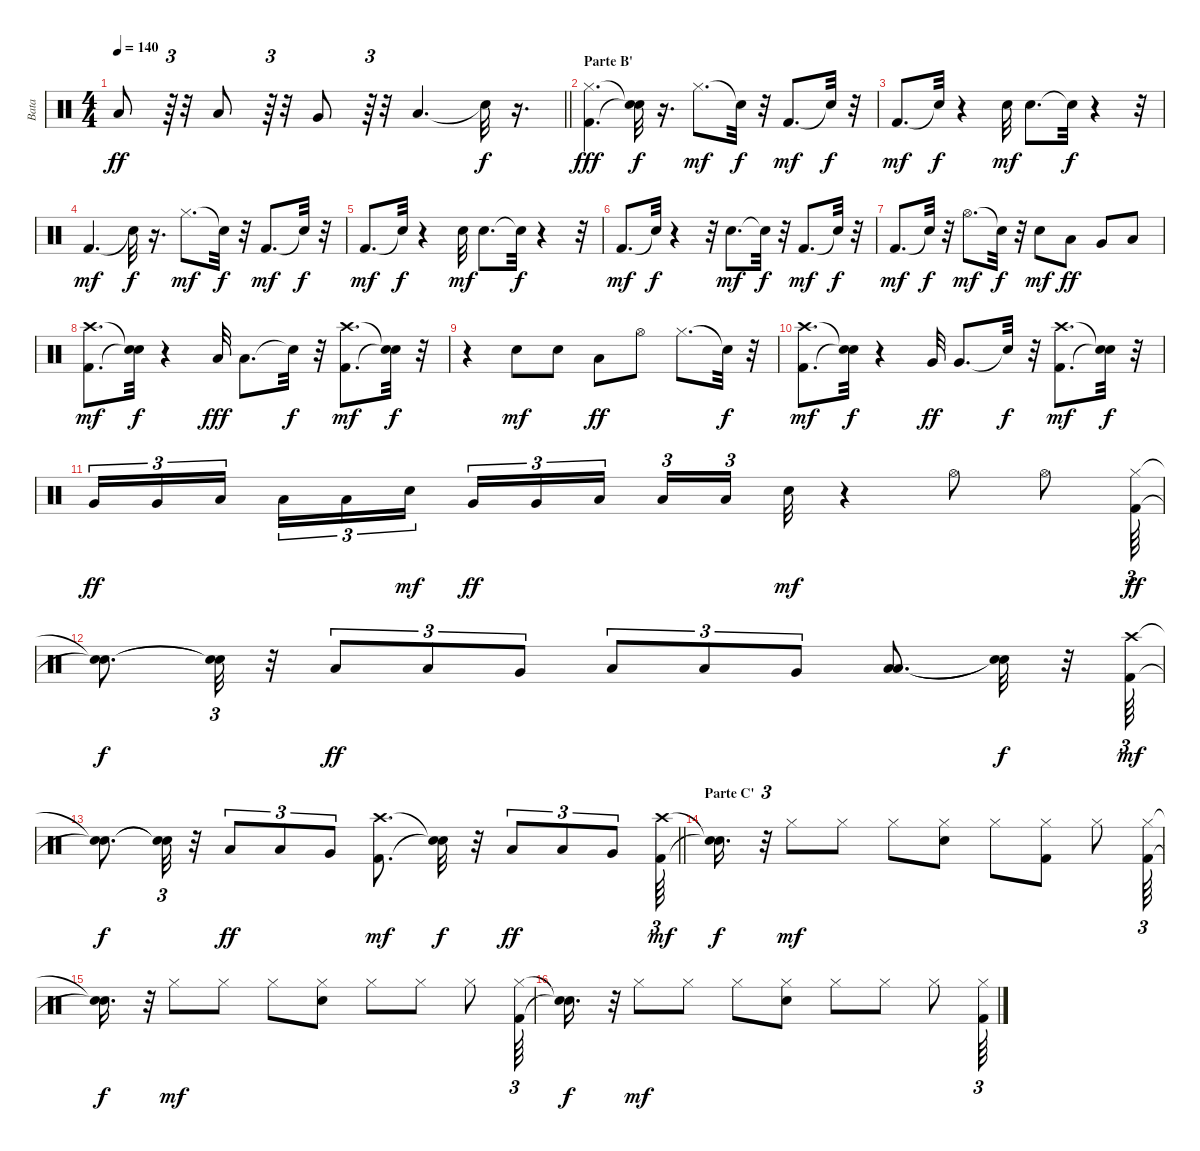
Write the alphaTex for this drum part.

\track ("Bata" "Bata") {instrument percussion}
\staff {score}
\articulation defaults
\ts (4 4)
\tempo 140
\clef neutral
\barLineRight lightlight
\ks c "Low Tom (hit)".8{dy ff}
r.64{tu (3 2)} r.32 "Low Tom (hit)".8 r.64{tu (3 2)} r.32 "Very Low Tom (hit)".8 r.64{tu (3 2)} r.32 "Low Floor Tom (hit)".4{d} "Snare (hit)"{t}.32{dy f} r.16{d} |
\section ("" "Parte B'")
("Kick (hit) 2" "Hi-Hat (closed)").4{d dy fff} ("Snare (hit)"{t} "Snare (hit)"{t}).32{dy f} r.16{d} "Hi-Hat (closed)".8{d dy mf} "Snare (hit)"{t}.32{dy f} r.32 "Kick (hit) 2".8{d dy mf} "Snare (hit)"{t}.32{dy f} r.32 |
"Kick (hit) 2".8{d dy mf} "Snare (hit)"{t}.32{dy f} r.4 "Snare (hit) 2".32{dy mf} "Snare (hit) 2".8{d} "Snare (hit)"{t}.32{dy f} r.4 r.32 |
"Kick (hit) 2".4{d dy mf} "Snare (hit)"{t}.32{dy f} r.16{d} "Hi-Hat (closed)".8{d dy mf} "Snare (hit)"{t}.32{dy f} r.32 "Kick (hit) 2".8{d dy mf} "Snare (hit)"{t}.32{dy f} r.32 |
"Kick (hit) 2".8{d dy mf} "Snare (hit)"{t}.32{dy f} r.4 "Snare (hit) 2".32{dy mf} "Snare (hit) 2".8{d} "Snare (hit)"{t}.32{dy f} r.4 r.32 |
"Kick (hit) 2".8{d dy mf} "Snare (hit)"{t}.32{dy f} r.4 r.32 "Snare (hit) 2".8{d dy mf} "Snare (hit)"{t}.32{dy f} r.32 "Kick (hit) 2".8{d dy mf} "Snare (hit)"{t}.32{dy f} r.32 |
"Kick (hit) 2".8{d dy mf} "Snare (hit)"{t}.32{dy f} r.32 "Hi-Hat (open)".8{d dy mf} "Snare (hit)"{t}.32{dy f} r.32 "Snare (hit) 2".8{dy mf} "Low Tom (hit)".8{dy ff} "Very Low Tom (hit)".8 "Low Floor Tom (hit)".8 |
("Kick (hit) 2" "Crash high (hit)").8{d dy mf} ("Snare (hit)"{t} "Snare (hit)"{t}).32{dy f} r.4 "Low Tom (hit)".32{dy fff} "Low Tom (hit)".8{d} "Snare (hit)"{t}.32{dy f} r.32 ("Kick (hit) 2" "Crash high (hit)").8{d dy mf} ("Snare (hit)"{t} "Snare (hit)"{t}).32{dy f} r.32 |
r.4 "Snare (hit) 2".8{dy mf} "Snare (hit) 2".8 "Low Tom (hit)".8{dy ff} "Hi-Hat (open)".8 "Hi-Hat (closed)".8{d} "Snare (hit)"{t}.32{dy f} r.32 |
("Kick (hit) 2" "Crash high (hit)").8{d dy mf} ("Snare (hit)"{t} "Snare (hit)"{t}).32{dy f} r.4 "Very Low Tom (hit)".32{dy ff} "Very Low Tom (hit)".8{d} "Snare (hit)"{t}.32{dy f} r.32 ("Kick (hit) 2" "Crash high (hit)").8{d dy mf} ("Snare (hit)"{t} "Snare (hit)"{t}).32{dy f} r.32 |
"Very Low Tom (hit)".16{tu (3 2) dy ff} "Very Low Tom (hit)".16{tu (3 2)} "Low Floor Tom (hit)".16{tu (3 2) beam splitsecondary} "Low Floor Tom (hit)".16{tu (3 2)} "Low Floor Tom (hit)".16{tu (3 2)} "Snare (hit) 2".16{tu (3 2) dy mf} "Very Low Tom (hit)".16{tu (3 2) dy ff} "Very Low Tom (hit)".16{tu (3 2)} "Low Floor Tom (hit)".16{tu (3 2) beam splitsecondary} "Low Floor Tom (hit)".16{tu (3 2)} "Low Floor Tom (hit)".16{tu (3 2) beam splitsecondary} "Snare (hit) 2".32{dy mf} r.4 "Hi-Hat (open)".8 "Hi-Hat (open)".8 ("Hi-Hat (closed)" "Kick (hit) 2").64{tu (3 2) dy ff} |
("Snare (hit)"{t} "Snare (hit)"{t}).8{d dy f} ("Snare (hit)"{t} "Snare (hit)"{t}).32{tu (3 2)} r.32 "Low Tom (hit)".8{tu (3 2) dy ff} "Low Tom (hit)".8{tu (3 2)} "Very Low Tom (hit)".8{tu (3 2)} "Low Tom (hit)".8{tu (3 2)} "Low Tom (hit)".8{tu (3 2)} "Very Low Tom (hit)".8{tu (3 2)} ("Low Floor Tom (hit)" "Low Tom (hit)").8{d} ("Snare (hit)"{t} "Snare (hit)"{t}).32{dy f} r.32 ("Kick (hit) 2" "Crash high (hit)").64{tu (3 2) dy mf} |
\barLineRight lightlight
("Snare (hit)"{t} "Snare (hit)"{t}).8{d dy f} ("Snare (hit)"{t} "Snare (hit)"{t}).32{tu (3 2)} r.32 "Low Tom (hit)".8{tu (3 2) dy ff} "Low Tom (hit)".8{tu (3 2)} "Very Low Tom (hit)".8{tu (3 2)} ("Crash high (hit)" "Kick (hit) 2").8{d dy mf} ("Snare (hit)"{t} "Snare (hit)"{t}).32{dy f} r.32 "Low Tom (hit)".8{tu (3 2) dy ff} "Low Tom (hit)".8{tu (3 2)} "Very Low Tom (hit)".8{tu (3 2)} ("Kick (hit) 2" "Crash high (hit)").64{tu (3 2) dy mf} |
\section ("" "Parte C'")
("Snare (hit)"{t} "Snare (hit)"{t}).16{d dy f} r.32{tu (3 2)} "Hi-Hat (closed)".8{dy mf} "Hi-Hat (closed)".8 "Hi-Hat (closed)".8 ("Snare (hit) 2" "Hi-Hat (closed)").8 "Hi-Hat (closed)".8 ("Kick (hit) 2" "Hi-Hat (closed)").8 "Hi-Hat (closed)".8 ("Kick (hit) 2" "Hi-Hat (closed)").64{tu (3 2)} |
("Snare (hit)"{t} "Snare (hit)"{t}).16{d dy f} r.32{tu (3 2)} "Hi-Hat (closed)".8{dy mf} "Hi-Hat (closed)".8 "Hi-Hat (closed)".8 ("Snare (hit) 2" "Hi-Hat (closed)").8 "Hi-Hat (closed)".8 "Hi-Hat (closed)".8 "Hi-Hat (closed)".8 ("Kick (hit) 2" "Hi-Hat (closed)").64{tu (3 2)} |
("Snare (hit)"{t} "Snare (hit)"{t}).16{d dy f} r.32{tu (3 2)} "Hi-Hat (closed)".8{dy mf} "Hi-Hat (closed)".8 "Hi-Hat (closed)".8 ("Hi-Hat (closed)" "Snare (hit) 2").8 "Hi-Hat (closed)".8 "Hi-Hat (closed)".8 "Hi-Hat (closed)".8 ("Hi-Hat (closed)" "Kick (hit) 2").64{tu (3 2)}
